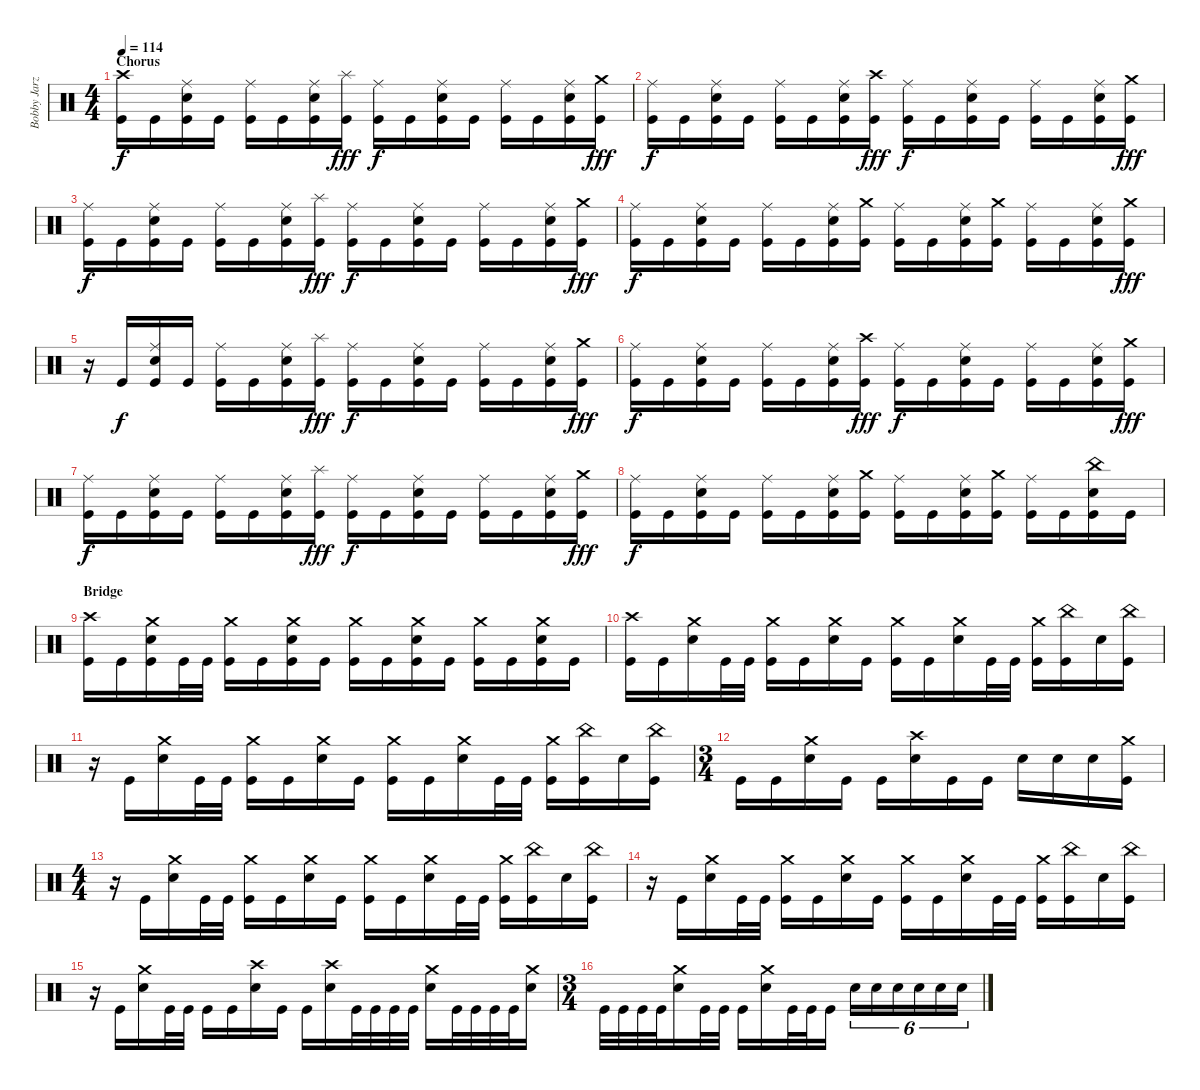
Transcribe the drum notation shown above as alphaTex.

\track ("Bobby Jarzombek" "Bobby Jarz") {instrument percussion}
\staff {score}
\articulation defaults
\ts (4 4)
\section ("" "Chorus")
\tempo 114
\clef neutral
\ks c
("Crash high (hit)" "Kick (hit)").16{dy f} "Kick (hit)".16 ("Ride (middle)" "Electric Snare (hit)" "Kick (hit)").16 "Kick (hit)".16 ("Ride (middle)" "Kick (hit)").16 "Kick (hit)".16 ("Ride (middle)" "Electric Snare (hit)" "Kick (hit)").16 ("Splash (hit)" "Kick (hit)").16{dy fff} ("Ride (middle)" "Kick (hit)").16{dy f} "Kick (hit)".16 ("Ride (middle)" "Electric Snare (hit)" "Kick (hit)").16 "Kick (hit)".16 ("Ride (middle)" "Kick (hit)").16 "Kick (hit)".16 ("Ride (middle)" "Electric Snare (hit)" "Kick (hit)").16 ("Crash medium (hit)" "Kick (hit)").16{dy fff} |
("Ride (middle)" "Kick (hit)").16{dy f} "Kick (hit)".16 ("Ride (middle)" "Electric Snare (hit)" "Kick (hit)").16 "Kick (hit)".16 ("Ride (middle)" "Kick (hit)").16 "Kick (hit)".16 ("Ride (middle)" "Electric Snare (hit)" "Kick (hit)").16 ("Crash high (hit)" "Kick (hit)").16{dy fff} ("Ride (middle)" "Kick (hit)").16{dy f} "Kick (hit)".16 ("Ride (middle)" "Electric Snare (hit)" "Kick (hit)").16 "Kick (hit)".16 ("Ride (middle)" "Kick (hit)").16 "Kick (hit)".16 ("Ride (middle)" "Electric Snare (hit)" "Kick (hit)").16 ("Crash medium (hit)" "Kick (hit)").16{dy fff} |
("Ride (middle)" "Kick (hit)").16{dy f} "Kick (hit)".16 ("Ride (middle)" "Electric Snare (hit)" "Kick (hit)").16 "Kick (hit)".16 ("Ride (middle)" "Kick (hit)").16 "Kick (hit)".16 ("Ride (middle)" "Electric Snare (hit)" "Kick (hit)").16 ("Splash (hit)" "Kick (hit)").16{dy fff} ("Ride (middle)" "Kick (hit)").16{dy f} "Kick (hit)".16 ("Ride (middle)" "Electric Snare (hit)" "Kick (hit)").16 "Kick (hit)".16 ("Ride (middle)" "Kick (hit)").16 "Kick (hit)".16 ("Ride (middle)" "Electric Snare (hit)" "Kick (hit)").16 ("Crash medium (hit)" "Kick (hit)").16{dy fff} |
("Ride (middle)" "Kick (hit)").16{dy f} "Kick (hit)".16 ("Ride (middle)" "Electric Snare (hit)" "Kick (hit)").16 "Kick (hit)".16 ("Ride (middle)" "Kick (hit)").16 "Kick (hit)".16 ("Ride (middle)" "Electric Snare (hit)" "Kick (hit)").16 ("Crash medium (hit)" "Kick (hit)").16 ("Ride (middle)" "Kick (hit)").16 "Kick (hit)".16 ("Ride (middle)" "Electric Snare (hit)" "Kick (hit)").16 ("Crash medium (hit)" "Kick (hit)").16 ("Ride (middle)" "Kick (hit)").16 "Kick (hit)".16 ("Ride (middle)" "Electric Snare (hit)" "Kick (hit)").16 ("Crash medium (hit)" "Kick (hit)").16{dy fff} |
r.16 "Kick (hit)".16{dy f} ("Ride (middle)" "Electric Snare (hit)" "Kick (hit)").16 "Kick (hit)".16 ("Ride (middle)" "Kick (hit)").16 "Kick (hit)".16 ("Ride (middle)" "Electric Snare (hit)" "Kick (hit)").16 ("Splash (hit)" "Kick (hit)").16{dy fff} ("Ride (middle)" "Kick (hit)").16{dy f} "Kick (hit)".16 ("Ride (middle)" "Electric Snare (hit)" "Kick (hit)").16 "Kick (hit)".16 ("Ride (middle)" "Kick (hit)").16 "Kick (hit)".16 ("Ride (middle)" "Electric Snare (hit)" "Kick (hit)").16 ("Crash medium (hit)" "Kick (hit)").16{dy fff} |
("Ride (middle)" "Kick (hit)").16{dy f} "Kick (hit)".16 ("Ride (middle)" "Electric Snare (hit)" "Kick (hit)").16 "Kick (hit)".16 ("Ride (middle)" "Kick (hit)").16 "Kick (hit)".16 ("Ride (middle)" "Electric Snare (hit)" "Kick (hit)").16 ("Crash high (hit)" "Kick (hit)").16{dy fff} ("Ride (middle)" "Kick (hit)").16{dy f} "Kick (hit)".16 ("Ride (middle)" "Electric Snare (hit)" "Kick (hit)").16 "Kick (hit)".16 ("Ride (middle)" "Kick (hit)").16 "Kick (hit)".16 ("Ride (middle)" "Electric Snare (hit)" "Kick (hit)").16 ("Crash medium (hit)" "Kick (hit)").16{dy fff} |
("Ride (middle)" "Kick (hit)").16{dy f} "Kick (hit)".16 ("Ride (middle)" "Electric Snare (hit)" "Kick (hit)").16 "Kick (hit)".16 ("Ride (middle)" "Kick (hit)").16 "Kick (hit)".16 ("Ride (middle)" "Electric Snare (hit)" "Kick (hit)").16 ("Splash (hit)" "Kick (hit)").16{dy fff} ("Ride (middle)" "Kick (hit)").16{dy f} "Kick (hit)".16 ("Ride (middle)" "Electric Snare (hit)" "Kick (hit)").16 "Kick (hit)".16 ("Ride (middle)" "Kick (hit)").16 "Kick (hit)".16 ("Ride (middle)" "Electric Snare (hit)" "Kick (hit)").16 ("Crash medium (hit)" "Kick (hit)").16{dy fff} |
("Ride (middle)" "Kick (hit)").16{dy f} "Kick (hit)".16 ("Ride (middle)" "Electric Snare (hit)" "Kick (hit)").16 "Kick (hit)".16 ("Ride (middle)" "Kick (hit)").16 "Kick (hit)".16 ("Ride (middle)" "Electric Snare (hit)" "Kick (hit)").16 ("Crash medium (hit)" "Kick (hit)").16 ("Ride (middle)" "Kick (hit)").16 "Kick (hit)".16 ("Ride (middle)" "Electric Snare (hit)" "Kick (hit)").16 ("Crash medium (hit)" "Kick (hit)").16 ("Ride (middle)" "Kick (hit)").16 "Kick (hit)".16 ("China (hit)" "Electric Snare (hit)" "Kick (hit)").16 "Kick (hit)".16 |
\section ("" "Bridge")
("Crash high (hit)" "Kick (hit)").16 "Kick (hit)".16 ("Crash medium (hit)" "Electric Snare (hit)" "Kick (hit)").16 "Kick (hit)".32 "Kick (hit)".32 ("Crash medium (hit)" "Kick (hit)").16 "Kick (hit)".16 ("Crash medium (hit)" "Electric Snare (hit)" "Kick (hit)").16 "Kick (hit)".16 ("Crash medium (hit)" "Kick (hit)").16 "Kick (hit)".16 ("Crash medium (hit)" "Electric Snare (hit)" "Kick (hit)").16 "Kick (hit)".16 ("Crash medium (hit)" "Kick (hit)").16 "Kick (hit)".16 ("Crash medium (hit)" "Electric Snare (hit)" "Kick (hit)").16 "Kick (hit)".16 |
("Crash high (hit)" "Kick (hit)").16 "Kick (hit)".16 ("Crash medium (hit)" "Electric Snare (hit)").16 "Kick (hit)".32 "Kick (hit)".32 ("Crash medium (hit)" "Kick (hit)").16 "Kick (hit)".16 ("Crash medium (hit)" "Electric Snare (hit)").16 "Kick (hit)".16 ("Crash medium (hit)" "Kick (hit)").16 "Kick (hit)".16 ("Crash medium (hit)" "Electric Snare (hit)").16 "Kick (hit)".32 "Kick (hit)".32 ("Crash medium (hit)" "Kick (hit)").16 ("China (hit)" "Kick (hit)").16 "Electric Snare (hit)".16 ("China (hit)" "Kick (hit)").16 |
r.16 "Kick (hit)".16 ("Crash medium (hit)" "Electric Snare (hit)").16 "Kick (hit)".32 "Kick (hit)".32 ("Crash medium (hit)" "Kick (hit)").16 "Kick (hit)".16 ("Crash medium (hit)" "Electric Snare (hit)").16 "Kick (hit)".16 ("Crash medium (hit)" "Kick (hit)").16 "Kick (hit)".16 ("Crash medium (hit)" "Electric Snare (hit)").16 "Kick (hit)".32 "Kick (hit)".32 ("Crash medium (hit)" "Kick (hit)").16 ("China (hit)" "Kick (hit)").16 "Electric Snare (hit)".16 ("China (hit)" "Kick (hit)").16 |
\ts (3 4)
"Kick (hit)".16 "Kick (hit)".16 ("Crash medium (hit)" "Electric Snare (hit)").16 "Kick (hit)".16 "Kick (hit)".16 ("Crash high (hit)" "Electric Snare (hit)").16 "Kick (hit)".16 "Kick (hit)".16 "Electric Snare (hit)".16 "Electric Snare (hit)".16 "Electric Snare (hit)".16 ("Crash medium (hit)" "Kick (hit)").16 |
\ts (4 4)
r.16 "Kick (hit)".16 ("Crash medium (hit)" "Electric Snare (hit)").16 "Kick (hit)".32 "Kick (hit)".32 ("Crash medium (hit)" "Kick (hit)").16 "Kick (hit)".16 ("Crash medium (hit)" "Electric Snare (hit)").16 "Kick (hit)".16 ("Crash medium (hit)" "Kick (hit)").16 "Kick (hit)".16 ("Crash medium (hit)" "Electric Snare (hit)").16 "Kick (hit)".32 "Kick (hit)".32 ("Crash medium (hit)" "Kick (hit)").16 ("China (hit)" "Kick (hit)").16 "Electric Snare (hit)".16 ("China (hit)" "Kick (hit)").16 |
r.16 "Kick (hit)".16 ("Crash medium (hit)" "Electric Snare (hit)").16 "Kick (hit)".32 "Kick (hit)".32 ("Crash medium (hit)" "Kick (hit)").16 "Kick (hit)".16 ("Crash medium (hit)" "Electric Snare (hit)").16 "Kick (hit)".16 ("Crash medium (hit)" "Kick (hit)").16 "Kick (hit)".16 ("Crash medium (hit)" "Electric Snare (hit)").16 "Kick (hit)".32 "Kick (hit)".32 ("Crash medium (hit)" "Kick (hit)").16 ("China (hit)" "Kick (hit)").16 "Electric Snare (hit)".16 ("China (hit)" "Kick (hit)").16 |
r.16 "Kick (hit)".16 ("Crash medium (hit)" "Electric Snare (hit)").16 "Kick (hit)".32 "Kick (hit)".32 "Kick (hit)".16 "Kick (hit)".16 ("Crash high (hit)" "Electric Snare (hit)").16 "Kick (hit)".16 "Kick (hit)".16 ("Crash high (hit)" "Electric Snare (hit)").16 "Kick (hit)".32 "Kick (hit)".32 "Kick (hit)".32 "Kick (hit)".32 ("Crash medium (hit)" "Electric Snare (hit)").16 "Kick (hit)".32 "Kick (hit)".32 "Kick (hit)".32 "Kick (hit)".32 ("Crash medium (hit)" "Electric Snare (hit)").16 |
\ts (3 4)
"Kick (hit)".32 "Kick (hit)".32 "Kick (hit)".32 "Kick (hit)".32 ("Crash medium (hit)" "Electric Snare (hit)").16 "Kick (hit)".32 "Kick (hit)".32 "Kick (hit)".16 ("Crash medium (hit)" "Electric Snare (hit)").16 "Kick (hit)".32 "Kick (hit)".32 "Kick (hit)".16 "Electric Snare (hit)".16{tu (6 4)} "Electric Snare (hit)".16{tu (6 4)} "Electric Snare (hit)".16{tu (6 4)} "Electric Snare (hit)".16{tu (6 4)} "Electric Snare (hit)".16{tu (6 4)} "Electric Snare (hit)".16{tu (6 4)}
